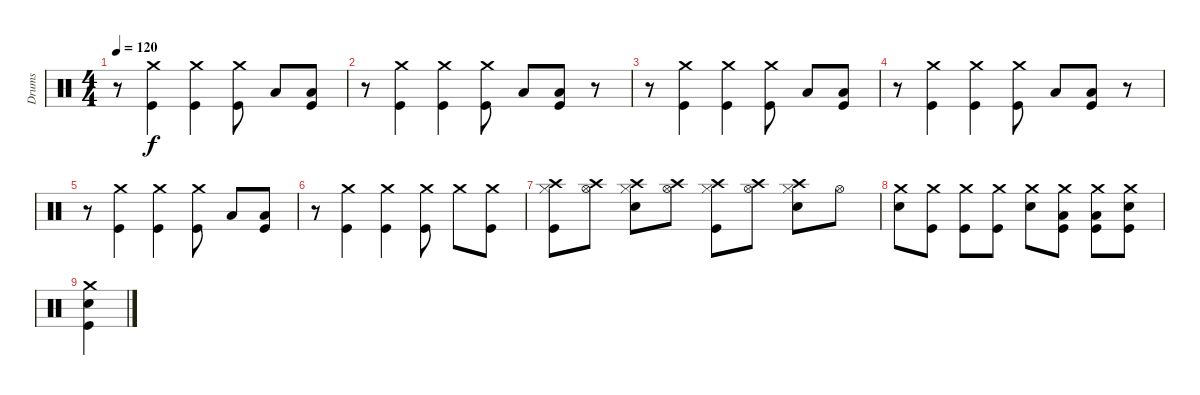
\track ("Drums" "Drums") {instrument percussion}
\staff {score}
\articulation defaults
\ts (4 4)
\tempo 120
\clef neutral
\ks c
r.8{dy f} ("Crash medium (hit)" "Kick (hit)").4 ("Crash medium (hit)" "Kick (hit)").4 ("Crash medium (hit)" "Kick (hit)").8 "Low Tom (hit)".8 ("Low Floor Tom (hit)" "Kick (hit)").8 |
r.8 ("Crash medium (hit)" "Kick (hit)").4 ("Crash medium (hit)" "Kick (hit)").4 ("Crash medium (hit)" "Kick (hit)").8 "Low Floor Tom (hit)".8 ("Low Tom (hit)" "Kick (hit)").8 r.8 |
r.8 ("Crash medium (hit)" "Kick (hit)").4 ("Crash medium (hit)" "Kick (hit)").4 ("Crash medium (hit)" "Kick (hit)").8 "Low Tom (hit)".8 ("Low Floor Tom (hit)" "Kick (hit)").8 |
r.8 ("Crash medium (hit)" "Kick (hit)").4 ("Crash medium (hit)" "Kick (hit)").4 ("Crash medium (hit)" "Kick (hit)").8 "Low Floor Tom (hit)".8 ("Low Tom (hit)" "Kick (hit)").8 r.8 |
r.8 ("Crash medium (hit)" "Kick (hit)").4 ("Crash medium (hit)" "Kick (hit)").4 ("Crash medium (hit)" "Kick (hit)").8 "Low Tom (hit)".8 ("Low Floor Tom (hit)" "Kick (hit)").8 |
r.8 ("Crash medium (hit)" "Kick (hit)").4 ("Crash medium (hit)" "Kick (hit)").4 ("Crash medium (hit)" "Kick (hit)").8 "Crash medium (hit)".8 ("Crash medium (hit)" "Kick (hit)").8 |
("Crash high (hit)" "Hi-Hat (closed)" "Kick (hit)").8 ("Crash high (hit)" "Hi-Hat (open)").8 ("Crash high (hit)" "Snare (hit) 2" "Hi-Hat (closed)").8 ("Crash high (hit)" "Hi-Hat (open)").8 ("Crash high (hit)" "Hi-Hat (closed)" "Kick (hit)").8 ("Crash high (hit)" "Hi-Hat (open)").8 ("Crash high (hit)" "Snare (hit) 2" "Hi-Hat (closed)").8 "Hi-Hat (open)".8 |
("Crash medium (hit)" "Snare (hit) 2").8 ("Crash medium (hit)" "Kick (hit)").8 ("Crash medium (hit)" "Kick (hit)").8 ("Crash medium (hit)" "Kick (hit)").8 ("Crash medium (hit)" "Snare (hit) 2").8 ("Crash medium (hit)" "Low Tom (hit)" "Kick (hit)").8 ("Crash medium (hit)" "Low Tom (hit)" "Kick (hit)").8 ("Crash medium (hit)" "Snare (hit) 2" "Kick (hit)").8 |
("Crash medium (hit)" "Snare (hit) 2" "Kick (hit)").4
